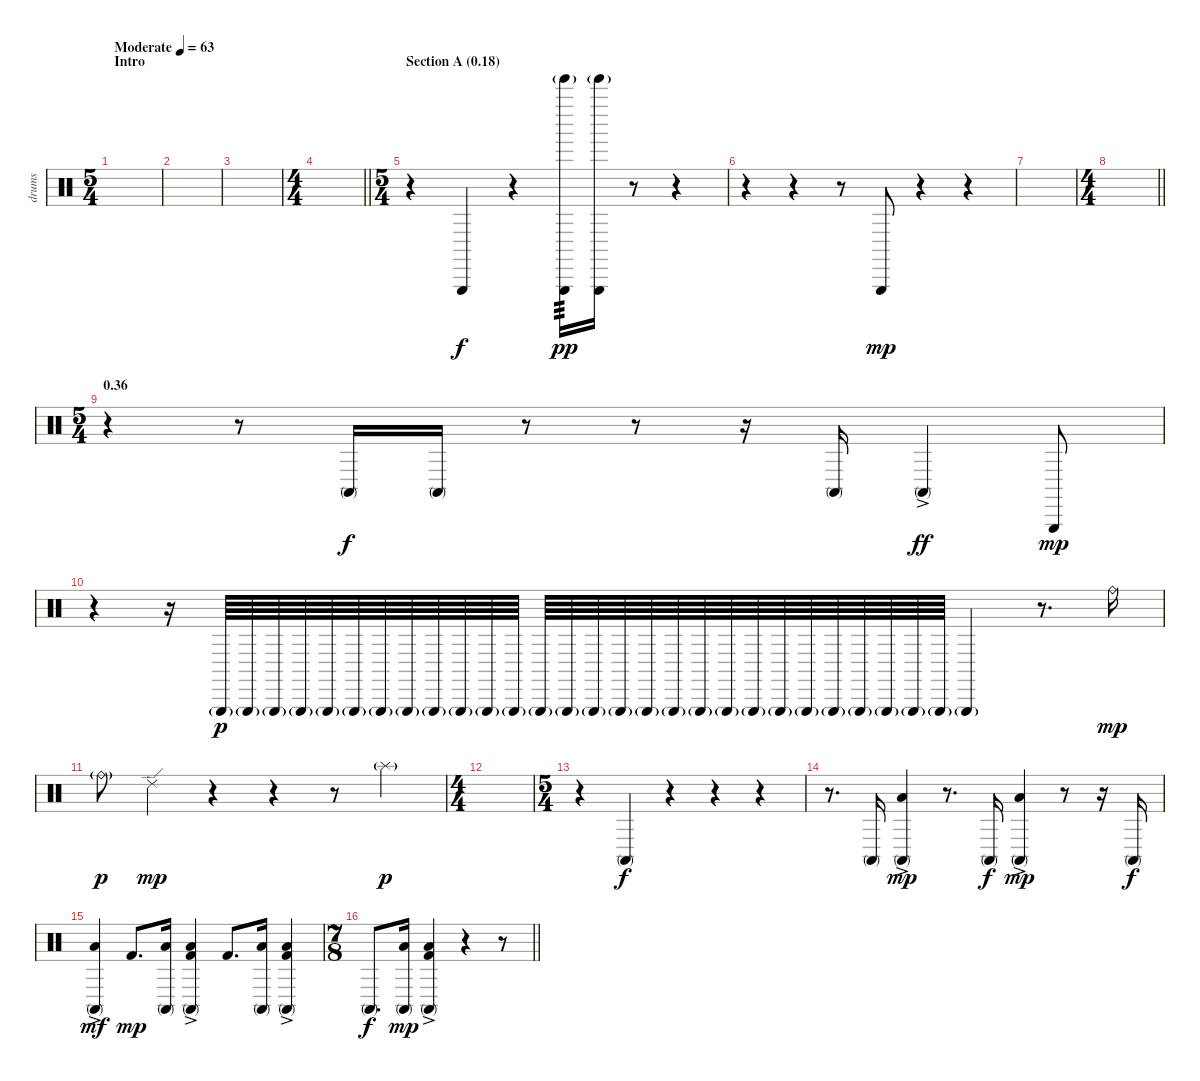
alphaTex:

\track ("drums" "drums") {instrument percussion}
\staff {score}
\articulation defaults
\ts (5 4)
\section ("" "Intro")
\tempo (63 "Moderate")
\clef neutral
\ks c
|
|
|
\ts (4 4)
\barLineRight lightlight
|
\ts (5 4)
\section ("" "Section A (0.18)")
r.4 "Triangle (hit)".4 r.4 ("Triangle (hit)" "Tinkle Bell (hit)"{g}).16{tp 3 dy pp} ("Triangle (hit)" "Tinkle Bell (hit)"{g}).16 r.8 r.4 |
r.4 r.4 r.8 "Triangle (hit)".8{dy mp} r.4 r.4 |
|
\ts (4 4)
\barLineRight lightlight
|
\ts (5 4)
\section ("" "0.36")
r.4 r.8 "Conga high (mute)".16{dy f} "Conga high (mute)".16 r.8 r.8 r.16 "Conga high (mute)".16 "Conga high (mute)"{ac}.4{dy ff} "Triangle (hit)".8{dy mp} |
r.4 r.16 "Triangle (hit)"{g}.64{dy p} "Triangle (hit)"{g}.64 "Triangle (hit)"{g}.64 "Triangle (hit)"{g}.64 "Triangle (hit)"{g}.64 "Triangle (hit)"{g}.64 "Triangle (hit)"{g}.64 "Triangle (hit)"{g}.64 "Triangle (hit)"{g}.64 "Triangle (hit)"{g}.64 "Triangle (hit)"{g}.64 "Triangle (hit)"{g}.64 "Triangle (hit)"{g}.64 "Triangle (hit)"{g}.64 "Triangle (hit)"{g}.64 "Triangle (hit)"{g}.64 "Triangle (hit)"{g}.64 "Triangle (hit)"{g}.64 "Triangle (hit)"{g}.64 "Triangle (hit)"{g}.64 "Triangle (hit)"{g}.64 "Triangle (hit)"{g}.64 "Triangle (hit)"{g}.64 "Triangle (hit)"{g}.64 "Triangle (hit)"{g}.64 "Triangle (hit)"{g}.64 "Triangle (hit)"{g}.64 "Triangle (hit)"{g}.64 "Triangle (hit)"{g}.4 r.8{d} "Ride (bell)".16{dy mp} |
"Ride (bell)"{g}.8{dy p} "Ride (edge) 2".4{dy mp} r.4 r.4 r.8 "Splash (hit)"{g}.4{dy p} |
\ts (4 4)
|
\ts (5 4)
r.4 "Conga high (mute)".4{dy f} r.4 r.4 r.4 |
r.8{d} "Conga high (mute)".16 ("Conga high (mute)"{ac} "Low Tom (hit)").4{dy mp} r.8{d} "Conga high (mute)".16{dy f} ("Conga high (mute)"{ac} "Low Tom (hit)").4{dy mp} r.8 r.16 "Conga high (mute)".16{dy f} |
("Conga high (mute)"{ac} "Low Tom (hit)"{ac}).4{dy mf} "Kick (hit) 2".8{d dy mp} ("Conga high (mute)" "Low Tom (hit)").16 ("Conga high (mute)"{ac} "Low Tom (hit)"{ac} "Kick (hit) 2").4 "Kick (hit) 2".8{d} ("Conga high (mute)" "Low Tom (hit)").16 ("Conga high (mute)"{ac} "Low Tom (hit)"{ac} "Kick (hit) 2").4 |
\ts (7 8)
\barLineRight lightlight "Conga high (mute)".8{d dy f}
("Conga high (mute)" "Low Tom (hit)").16{dy mp} ("Conga high (mute)"{ac} "Low Tom (hit)"{ac} "Kick (hit) 2").4 r.4 r.8
